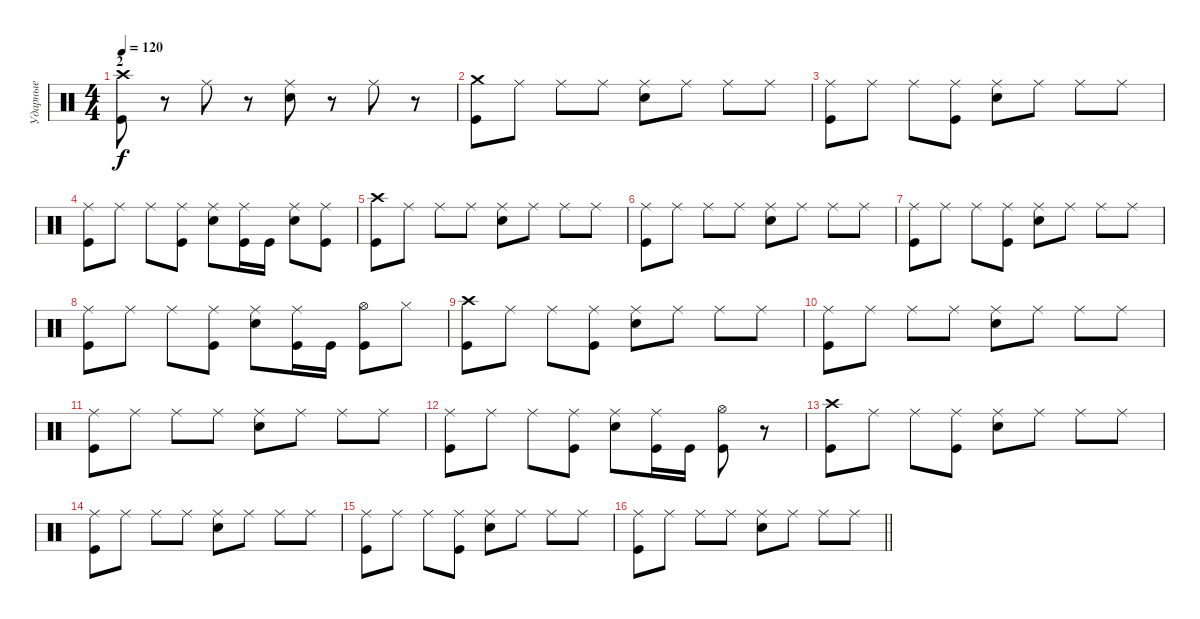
\track ("Ударные" "Ударные") {instrument percussion}
\staff {score}
\articulation defaults
\ts (4 4)
\section ("" "2")
\tempo 120
\clef neutral
\ks c
("Crash high (hit)" "Kick (hit)").8{dy f} r.8 "Ride (middle)".8 r.8 ("Ride (middle)" "Electric Snare (hit)").8 r.8 "Ride (middle)".8 r.8 |
("Crash medium (hit)" "Kick (hit)").8 "Ride (middle)".8 "Ride (middle)".8 "Ride (middle)".8 ("Ride (middle)" "Electric Snare (hit)").8 "Ride (middle)".8 "Ride (middle)".8 "Ride (middle)".8 |
("Ride (middle)" "Kick (hit)").8 "Ride (middle)".8 "Ride (middle)".8 ("Ride (middle)" "Kick (hit)").8 ("Ride (middle)" "Electric Snare (hit)").8 "Ride (middle)".8 "Ride (middle)".8 "Ride (middle)".8 |
("Ride (middle)" "Kick (hit)").8 "Ride (middle)".8 "Ride (middle)".8 ("Ride (middle)" "Kick (hit)").8 ("Ride (middle)" "Electric Snare (hit)").8 ("Ride (middle)" "Kick (hit)").16 "Kick (hit)".16 ("Ride (middle)" "Electric Snare (hit)").8 ("Ride (middle)" "Kick (hit)").8 |
("Crash high (hit)" "Kick (hit)").8 "Ride (middle)".8 "Ride (middle)".8 "Ride (middle)".8 ("Ride (middle)" "Electric Snare (hit)").8 "Ride (middle)".8 "Ride (middle)".8 "Ride (middle)".8 |
("Ride (middle)" "Kick (hit)").8 "Ride (middle)".8 "Ride (middle)".8 "Ride (middle)".8 ("Ride (middle)" "Electric Snare (hit)").8 "Ride (middle)".8 "Ride (middle)".8 "Ride (middle)".8 |
("Ride (middle)" "Kick (hit)").8 "Ride (middle)".8 "Ride (middle)".8 ("Ride (middle)" "Kick (hit)").8 ("Ride (middle)" "Electric Snare (hit)").8 "Ride (middle)".8 "Ride (middle)".8 "Ride (middle)".8 |
("Ride (middle)" "Kick (hit)").8 "Ride (middle)".8 "Ride (middle)".8 ("Ride (middle)" "Kick (hit)").8 ("Ride (middle)" "Electric Snare (hit)").8 ("Ride (middle)" "Kick (hit)").16 "Kick (hit)".16 ("Hi-Hat (open)" "Kick (hit)").8 "Hi-Hat (closed)".8 |
("Crash high (hit)" "Kick (hit)").8 "Ride (middle)".8 "Ride (middle)".8 ("Ride (middle)" "Kick (hit)").8 ("Ride (middle)" "Electric Snare (hit)").8 "Ride (middle)".8 "Ride (middle)".8 "Ride (middle)".8 |
("Ride (middle)" "Kick (hit)").8 "Ride (middle)".8 "Ride (middle)".8 "Ride (middle)".8 ("Ride (middle)" "Electric Snare (hit)").8 "Ride (middle)".8 "Ride (middle)".8 "Ride (middle)".8 |
("Ride (middle)" "Kick (hit)").8 "Ride (middle)".8 "Ride (middle)".8 "Ride (middle)".8 ("Ride (middle)" "Electric Snare (hit)").8 "Ride (middle)".8 "Ride (middle)".8 "Ride (middle)".8 |
("Ride (middle)" "Kick (hit)").8 "Ride (middle)".8 "Ride (middle)".8 ("Ride (middle)" "Kick (hit)").8 ("Ride (middle)" "Electric Snare (hit)").8 ("Ride (middle)" "Kick (hit)").16 "Kick (hit)".16 ("Hi-Hat (open)" "Kick (hit)").8 r.8 |
("Crash high (hit)" "Kick (hit)").8 "Ride (middle)".8 "Ride (middle)".8 ("Ride (middle)" "Kick (hit)").8 ("Ride (middle)" "Electric Snare (hit)").8 "Ride (middle)".8 "Ride (middle)".8 "Ride (middle)".8 |
("Ride (middle)" "Kick (hit)").8 "Ride (middle)".8 "Ride (middle)".8 "Ride (middle)".8 ("Ride (middle)" "Electric Snare (hit)").8 "Ride (middle)".8 "Ride (middle)".8 "Ride (middle)".8 |
("Ride (middle)" "Kick (hit)").8 "Ride (middle)".8 "Ride (middle)".8 ("Ride (middle)" "Kick (hit)").8 ("Ride (middle)" "Electric Snare (hit)").8 "Ride (middle)".8 "Ride (middle)".8 "Ride (middle)".8 |
\barLineRight lightlight
("Ride (middle)" "Kick (hit)").8 "Ride (middle)".8 "Ride (middle)".8 "Ride (middle)".8 ("Ride (middle)" "Electric Snare (hit)").8 "Ride (middle)".8 "Ride (middle)".8 "Ride (middle)".8
